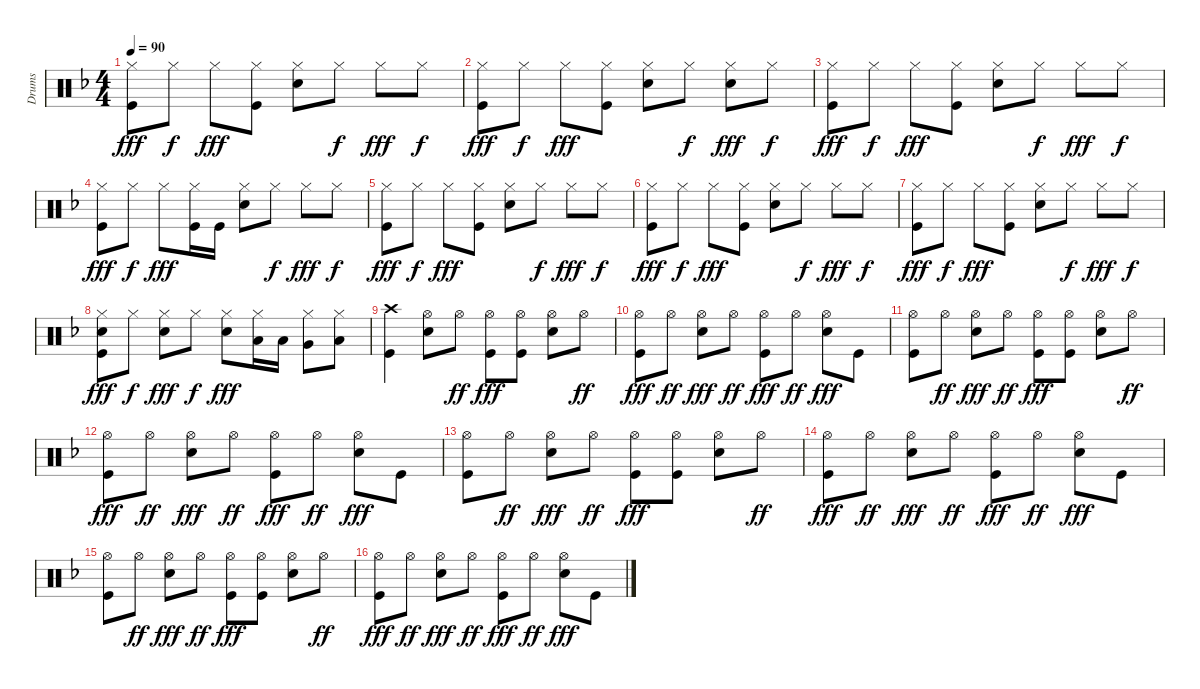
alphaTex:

\track ("Drums" "Drums") {instrument percussion}
\staff {score}
\articulation defaults
\ts (4 4)
\tempo 90
\clef neutral
\ks f
("Hi-Hat (closed)" "Kick (hit)").8{dy fff} "Hi-Hat (closed)".8{dy f} "Hi-Hat (closed)".8{dy fff} ("Hi-Hat (closed)" "Kick (hit)").8 ("Hi-Hat (closed)" "Snare (hit) 2").8 "Hi-Hat (closed)".8{dy f} "Hi-Hat (closed)".8{dy fff} "Hi-Hat (closed)".8{dy f} |
("Hi-Hat (closed)" "Kick (hit)").8{dy fff} "Hi-Hat (closed)".8{dy f} "Hi-Hat (closed)".8{dy fff} ("Hi-Hat (closed)" "Kick (hit)").8 ("Hi-Hat (closed)" "Snare (hit) 2").8 "Hi-Hat (closed)".8{dy f} ("Hi-Hat (closed)" "Snare (hit) 2").8{dy fff} "Hi-Hat (closed)".8{dy f} |
("Hi-Hat (closed)" "Kick (hit)").8{dy fff} "Hi-Hat (closed)".8{dy f} "Hi-Hat (closed)".8{dy fff} ("Hi-Hat (closed)" "Kick (hit)").8 ("Hi-Hat (closed)" "Snare (hit) 2").8 "Hi-Hat (closed)".8{dy f} "Hi-Hat (closed)".8{dy fff} "Hi-Hat (closed)".8{dy f} |
("Hi-Hat (closed)" "Kick (hit)").8{dy fff} "Hi-Hat (closed)".8{dy f} "Hi-Hat (closed)".8{dy fff} ("Hi-Hat (closed)" "Kick (hit)").16 "Kick (hit)".16 ("Hi-Hat (closed)" "Snare (hit) 2").8 "Hi-Hat (closed)".8{dy f} "Hi-Hat (closed)".8{dy fff} "Hi-Hat (closed)".8{dy f} |
("Hi-Hat (closed)" "Kick (hit)").8{dy fff} "Hi-Hat (closed)".8{dy f} "Hi-Hat (closed)".8{dy fff} ("Hi-Hat (closed)" "Kick (hit)").8 ("Hi-Hat (closed)" "Snare (hit) 2").8 "Hi-Hat (closed)".8{dy f} "Hi-Hat (closed)".8{dy fff} "Hi-Hat (closed)".8{dy f} |
("Hi-Hat (closed)" "Kick (hit)").8{dy fff} "Hi-Hat (closed)".8{dy f} "Hi-Hat (closed)".8{dy fff} ("Hi-Hat (closed)" "Kick (hit)").8 ("Hi-Hat (closed)" "Snare (hit) 2").8 "Hi-Hat (closed)".8{dy f} "Hi-Hat (closed)".8{dy fff} "Hi-Hat (closed)".8{dy f} |
("Hi-Hat (closed)" "Kick (hit)").8{dy fff} "Hi-Hat (closed)".8{dy f} "Hi-Hat (closed)".8{dy fff} ("Hi-Hat (closed)" "Kick (hit)").8 ("Hi-Hat (closed)" "Snare (hit) 2").8 "Hi-Hat (closed)".8{dy f} "Hi-Hat (closed)".8{dy fff} "Hi-Hat (closed)".8{dy f} |
("Hi-Hat (closed)" "Snare (hit) 2" "Kick (hit)").8{dy fff} "Hi-Hat (closed)".8{dy f} ("Hi-Hat (closed)" "Snare (hit) 2").8{dy fff} "Hi-Hat (closed)".8{dy f} ("Hi-Hat (closed)" "Snare (hit) 2").8{dy fff} ("Hi-Hat (closed)" "Low Tom (hit)").16 "Low Tom (hit)".16 ("Hi-Hat (closed)" "Very Low Tom (hit)").8 ("Hi-Hat (closed)" "Low Floor Tom (hit)").8 |
("Crash high (hit)" "Kick (hit)").4 ("Hi-Hat (open)" "Snare (hit) 2").8 "Hi-Hat (open)".8{dy ff} ("Hi-Hat (open)" "Kick (hit)").8{dy fff} ("Hi-Hat (open)" "Kick (hit)").8 ("Hi-Hat (open)" "Snare (hit) 2").8 "Hi-Hat (open)".8{dy ff} |
("Hi-Hat (open)" "Kick (hit)").8{dy fff} "Hi-Hat (open)".8{dy ff} ("Hi-Hat (open)" "Snare (hit) 2").8{dy fff} "Hi-Hat (open)".8{dy ff} ("Hi-Hat (open)" "Kick (hit)").8{dy fff} "Hi-Hat (open)".8{dy ff} ("Hi-Hat (open)" "Snare (hit) 2").8{dy fff} "Kick (hit)".8 |
("Hi-Hat (open)" "Kick (hit)").8 "Hi-Hat (open)".8{dy ff} ("Hi-Hat (open)" "Snare (hit) 2").8{dy fff} "Hi-Hat (open)".8{dy ff} ("Hi-Hat (open)" "Kick (hit)").8{dy fff} ("Hi-Hat (open)" "Kick (hit)").8 ("Hi-Hat (open)" "Snare (hit) 2").8 "Hi-Hat (open)".8{dy ff} |
("Hi-Hat (open)" "Kick (hit)").8{dy fff} "Hi-Hat (open)".8{dy ff} ("Hi-Hat (open)" "Snare (hit) 2").8{dy fff} "Hi-Hat (open)".8{dy ff} ("Hi-Hat (open)" "Kick (hit)").8{dy fff} "Hi-Hat (open)".8{dy ff} ("Hi-Hat (open)" "Snare (hit) 2").8{dy fff} "Kick (hit)".8 |
("Hi-Hat (open)" "Kick (hit)").8 "Hi-Hat (open)".8{dy ff} ("Hi-Hat (open)" "Snare (hit) 2").8{dy fff} "Hi-Hat (open)".8{dy ff} ("Hi-Hat (open)" "Kick (hit)").8{dy fff} ("Hi-Hat (open)" "Kick (hit)").8 ("Hi-Hat (open)" "Snare (hit) 2").8 "Hi-Hat (open)".8{dy ff} |
("Hi-Hat (open)" "Kick (hit)").8{dy fff} "Hi-Hat (open)".8{dy ff} ("Hi-Hat (open)" "Snare (hit) 2").8{dy fff} "Hi-Hat (open)".8{dy ff} ("Hi-Hat (open)" "Kick (hit)").8{dy fff} "Hi-Hat (open)".8{dy ff} ("Hi-Hat (open)" "Snare (hit) 2").8{dy fff} "Kick (hit)".8 |
("Hi-Hat (open)" "Kick (hit)").8 "Hi-Hat (open)".8{dy ff} ("Hi-Hat (open)" "Snare (hit) 2").8{dy fff} "Hi-Hat (open)".8{dy ff} ("Hi-Hat (open)" "Kick (hit)").8{dy fff} ("Hi-Hat (open)" "Kick (hit)").8 ("Hi-Hat (open)" "Snare (hit) 2").8 "Hi-Hat (open)".8{dy ff} |
("Hi-Hat (open)" "Kick (hit)").8{dy fff} "Hi-Hat (open)".8{dy ff} ("Hi-Hat (open)" "Snare (hit) 2").8{dy fff} "Hi-Hat (open)".8{dy ff} ("Hi-Hat (open)" "Kick (hit)").8{dy fff} "Hi-Hat (open)".8{dy ff} ("Hi-Hat (open)" "Snare (hit) 2").8{dy fff} "Kick (hit)".8
